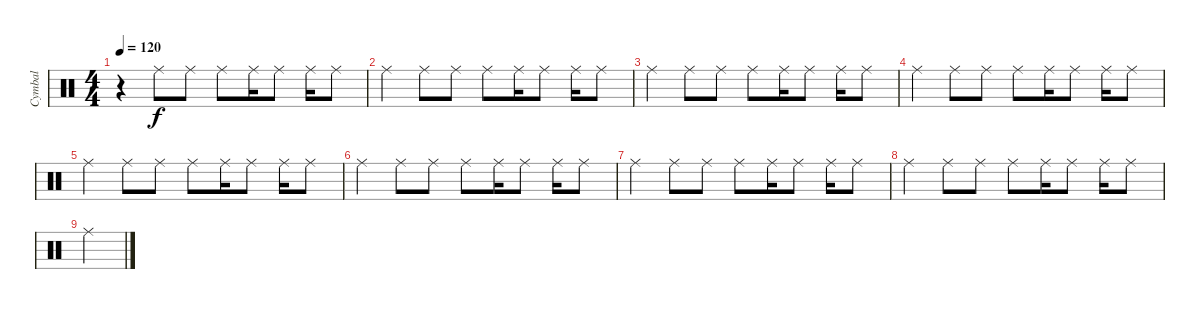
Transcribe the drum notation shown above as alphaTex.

\track ("Cymbal" "Cymbal") {instrument percussion}
\staff {score}
\articulation defaults
\ts (4 4)
\tempo 120
\clef neutral
\ks c
r.4{dy f} "Ride (middle)".8 "Ride (middle)".8 "Ride (middle)".8 "Ride (middle)".16 "Ride (middle)".8 "Ride (middle)".16 "Ride (middle)".8 |
"Ride (middle)".4 "Ride (middle)".8 "Ride (middle)".8 "Ride (middle)".8 "Ride (middle)".16 "Ride (middle)".8 "Ride (middle)".16 "Ride (middle)".8 |
"Ride (middle)".4 "Ride (middle)".8 "Ride (middle)".8 "Ride (middle)".8 "Ride (middle)".16 "Ride (middle)".8 "Ride (middle)".16 "Ride (middle)".8 |
"Ride (middle)".4 "Ride (middle)".8 "Ride (middle)".8 "Ride (middle)".8 "Ride (middle)".16 "Ride (middle)".8 "Ride (middle)".16 "Ride (middle)".8 |
"Ride (middle)".4 "Ride (middle)".8 "Ride (middle)".8 "Ride (middle)".8 "Ride (middle)".16 "Ride (middle)".8 "Ride (middle)".16 "Ride (middle)".8 |
"Ride (middle)".4 "Ride (middle)".8 "Ride (middle)".8 "Ride (middle)".8 "Ride (middle)".16 "Ride (middle)".8 "Ride (middle)".16 "Ride (middle)".8 |
"Ride (middle)".4 "Ride (middle)".8 "Ride (middle)".8 "Ride (middle)".8 "Ride (middle)".16 "Ride (middle)".8 "Ride (middle)".16 "Ride (middle)".8 |
"Ride (middle)".4 "Ride (middle)".8 "Ride (middle)".8 "Ride (middle)".8 "Ride (middle)".16 "Ride (middle)".8 "Ride (middle)".16 "Ride (middle)".8 |
"Ride (middle)".4
